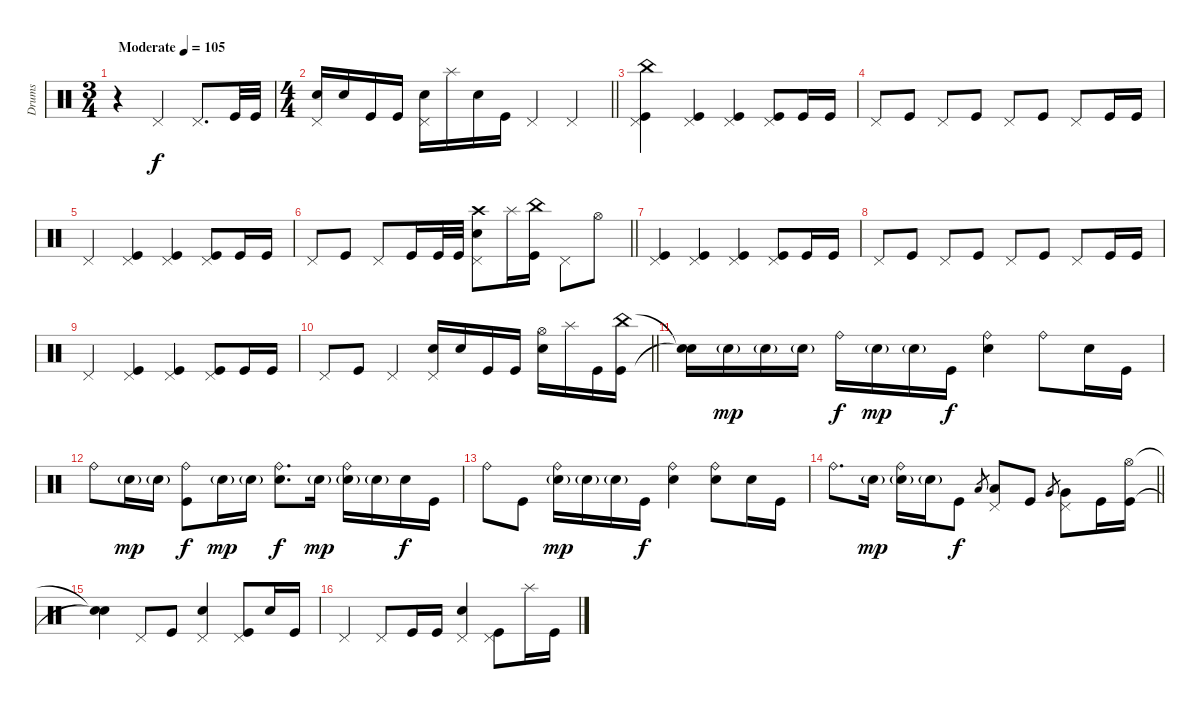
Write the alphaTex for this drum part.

\track ("Drums" "Drums") {instrument percussion}
\staff
\articulation defaults
\ts (3 4)
\tempo (105 "Moderate")
\clef neutral
\ks c
r.4{dy f} "Pedal Hi-Hat (hit)".4 "Pedal Hi-Hat (hit)".8{d} "Kick (hit)".32 "Kick (hit)".32 |
\ts (4 4)
\barLineRight lightlight
("Pedal Hi-Hat (hit)" "Electric Snare (hit)").16 "Electric Snare (hit)".16 "Kick (hit)".16 "Kick (hit)".16 ("Pedal Hi-Hat (hit)" "Electric Snare (hit)").16 "Splash (hit)".16 "Electric Snare (hit)".16 "Kick (hit)".16 "Pedal Hi-Hat (hit)".4 "Pedal Hi-Hat (hit)".4 |
("Pedal Hi-Hat (hit)" "China (hit)" "Kick (hit)").4 ("Pedal Hi-Hat (hit)" "Kick (hit)").4 ("Pedal Hi-Hat (hit)" "Kick (hit)").4 ("Pedal Hi-Hat (hit)" "Kick (hit)").8 "Kick (hit)".16 "Kick (hit)".16 |
"Pedal Hi-Hat (hit)".8 "Kick (hit)".8 "Pedal Hi-Hat (hit)".8 "Kick (hit)".8 "Pedal Hi-Hat (hit)".8 "Kick (hit)".8 "Pedal Hi-Hat (hit)".8 "Kick (hit)".16 "Kick (hit)".16 |
"Pedal Hi-Hat (hit)".4 ("Pedal Hi-Hat (hit)" "Kick (hit)").4 ("Pedal Hi-Hat (hit)" "Kick (hit)").4 ("Pedal Hi-Hat (hit)" "Kick (hit)").8 "Kick (hit)".16 "Kick (hit)".16 |
\barLineRight lightlight "Pedal Hi-Hat (hit)".8 "Kick (hit)".8 "Pedal Hi-Hat (hit)".8 "Kick (hit)".16 "Kick (hit)".32 "Kick (hit)".32
("Pedal Hi-Hat (hit)" "Crash high (hit)" "Electric Snare (hit)").8 "Splash (hit)".16 ("China (hit)" "Kick (hit)").16 "Pedal Hi-Hat (hit)".8 "Hi-Hat (open)".8 |
("Pedal Hi-Hat (hit)" "Kick (hit)").4 ("Pedal Hi-Hat (hit)" "Kick (hit)").4 ("Pedal Hi-Hat (hit)" "Kick (hit)").4 ("Pedal Hi-Hat (hit)" "Kick (hit)").8 "Kick (hit)".16 "Kick (hit)".16 |
"Pedal Hi-Hat (hit)".8 "Kick (hit)".8 "Pedal Hi-Hat (hit)".8 "Kick (hit)".8 "Pedal Hi-Hat (hit)".8 "Kick (hit)".8 "Pedal Hi-Hat (hit)".8 "Kick (hit)".16 "Kick (hit)".16 |
"Pedal Hi-Hat (hit)".4 ("Pedal Hi-Hat (hit)" "Kick (hit)").4 ("Pedal Hi-Hat (hit)" "Kick (hit)").4 ("Pedal Hi-Hat (hit)" "Kick (hit)").8 "Kick (hit)".16 "Kick (hit)".16 |
\barLineRight lightlight "Pedal Hi-Hat (hit)".8 "Kick (hit)".8 "Pedal Hi-Hat (hit)".4
("Pedal Hi-Hat (hit)" "Electric Snare (hit)").16 "Electric Snare (hit)".16 "Kick (hit)".16 "Kick (hit)".16 ("Hi-Hat (open)" "Electric Snare (hit)").16 "Splash (hit)".16 "Kick (hit)".16 ("China (hit)" "Kick (hit)").16 |
("Snare (hit)"{t} "Snare (hit)"{t}).16 "Electric Snare (hit)"{g}.16{dy mp} "Electric Snare (hit)"{g}.16 "Electric Snare (hit)"{g}.16 "Ride (bell)".16{dy f} "Electric Snare (hit)"{g}.16{dy mp} "Electric Snare (hit)"{g}.16 "Kick (hit)".16{dy f} ("Ride (bell)" "Electric Snare (hit)").4 "Ride (bell)".8 "Electric Snare (hit)".16 "Kick (hit)".16 |
"Ride (bell)".8 "Electric Snare (hit)"{g}.16{dy mp} "Electric Snare (hit)"{g}.16 ("Ride (bell)" "Kick (hit)").8{dy f} "Electric Snare (hit)"{g}.16{dy mp} "Electric Snare (hit)"{g}.16 ("Ride (bell)" "Electric Snare (hit)").8{d dy f} "Electric Snare (hit)"{g}.16{dy mp} ("Ride (bell)" "Electric Snare (hit)"{g}).16 "Electric Snare (hit)"{g}.16 "Electric Snare (hit)".16{dy f} "Kick (hit)".16 |
"Ride (bell)".8 "Kick (hit)".8 ("Ride (bell)" "Electric Snare (hit)"{g}).16{dy mp} "Electric Snare (hit)"{g}.16 "Electric Snare (hit)"{g}.16 "Kick (hit)".16{dy f} ("Ride (bell)" "Electric Snare (hit)").4 ("Ride (bell)" "Electric Snare (hit)").8 "Electric Snare (hit)".16 "Kick (hit)".16 |
\barLineRight lightlight "Ride (bell)".8{d} "Electric Snare (hit)"{g}.16{dy mp}
("Ride (bell)" "Electric Snare (hit)"{g}).16 "Electric Snare (hit)"{g}.16 "Kick (hit)".8{dy f} "Low Tom (hit)".8{gr} ("Pedal Hi-Hat (hit)" "Low Tom (hit)").8 "Kick (hit)".8 "Very Low Tom (hit)".8{gr} ("Pedal Hi-Hat (hit)" "Very Low Tom (hit)").8 "Kick (hit)".16 ("Hi-Hat (open)" "Kick (hit)").16 |
("Snare (hit)"{t} "Snare (hit)"{t}).4 "Pedal Hi-Hat (hit)".8 "Kick (hit)".8 ("Pedal Hi-Hat (hit)" "Electric Snare (hit)").4 ("Pedal Hi-Hat (hit)" "Kick (hit)").8 "Electric Snare (hit)".16 "Kick (hit)".16 |
"Pedal Hi-Hat (hit)".4 "Pedal Hi-Hat (hit)".8 "Kick (hit)".16 "Kick (hit)".16 ("Pedal Hi-Hat (hit)" "Electric Snare (hit)").4 ("Pedal Hi-Hat (hit)" "Kick (hit)").8 "Splash (hit)".16 "Kick (hit)".16
